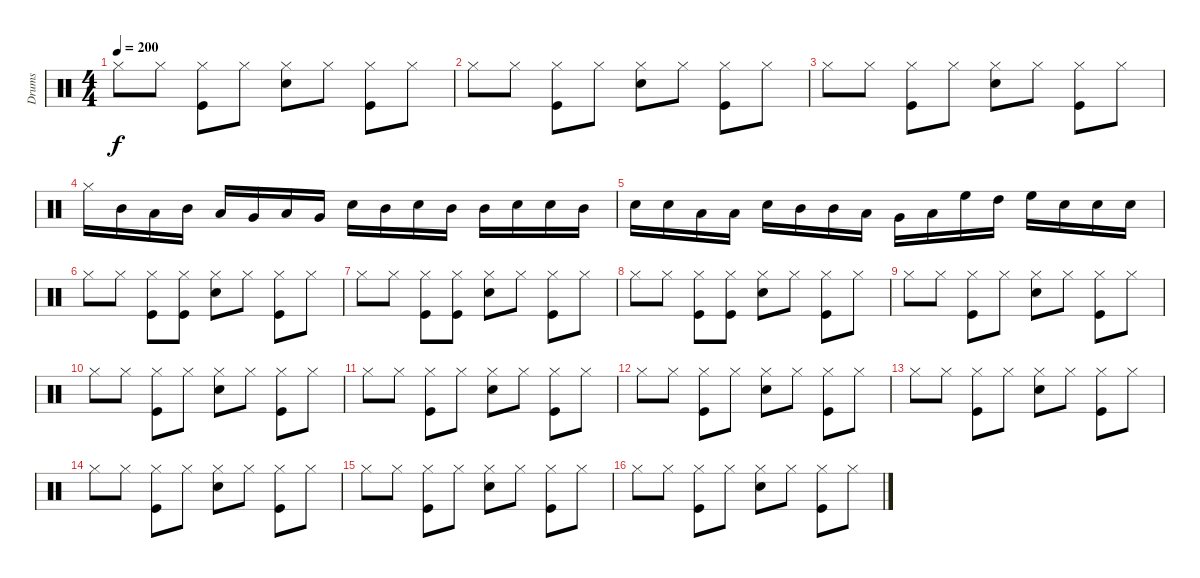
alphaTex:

\track ("Drums" "Drums") {instrument percussion}
\staff {score}
\articulation defaults
\ts (4 4)
\tempo 200
\clef neutral
\ks c "Hi-Hat (closed)".8{dy f} "Hi-Hat (closed)".8
("Kick (hit)" "Hi-Hat (closed)").8 "Hi-Hat (closed)".8 ("Electric Snare (hit)" "Hi-Hat (closed)").8 "Hi-Hat (closed)".8 ("Hi-Hat (closed)" "Kick (hit)").8 "Hi-Hat (closed)".8 |
"Hi-Hat (closed)".8 "Hi-Hat (closed)".8 ("Kick (hit)" "Hi-Hat (closed)").8 "Hi-Hat (closed)".8 ("Electric Snare (hit)" "Hi-Hat (closed)").8 "Hi-Hat (closed)".8 ("Hi-Hat (closed)" "Kick (hit)").8 "Hi-Hat (closed)".8 |
"Hi-Hat (closed)".8 "Hi-Hat (closed)".8 ("Kick (hit)" "Hi-Hat (closed)").8 "Hi-Hat (closed)".8 ("Electric Snare (hit)" "Hi-Hat (closed)").8 "Hi-Hat (closed)".8 ("Hi-Hat (closed)" "Kick (hit)").8 "Hi-Hat (closed)".8 |
"Hi-Hat (closed)".16 "Mid Tom (hit)".16 "Low Tom (hit)".16 "Mid Tom (hit)".16 "Low Floor Tom (hit)".16 "Very Low Tom (hit)".16 "Low Floor Tom (hit)".16 "Very Low Tom (hit)".16 "Electric Snare (hit)".16 "Mid Tom (hit)".16 "Electric Snare (hit)".16 "Mid Tom (hit)".16 "Mid Tom (hit)".16 "Electric Snare (hit)".16 "Electric Snare (hit)".16 "Mid Tom (hit)".16 |
"Electric Snare (hit)".16 "Electric Snare (hit)".16 "Low Tom (hit)".16 "Low Tom (hit)".16 "Electric Snare (hit)".16 "Mid Tom (hit)".16 "Mid Tom (hit)".16 "Low Tom (hit)".16 "Very Low Tom (hit)".16 "Low Floor Tom (hit)".16 "High Floor Tom (hit)".16 "High Tom (hit)".16 "High Floor Tom (hit)".16 "Electric Snare (hit)".16 "Electric Snare (hit)".16 "Electric Snare (hit)".16 |
"Hi-Hat (closed)".8 "Hi-Hat (closed)".8 ("Hi-Hat (closed)" "Kick (hit)").8 ("Kick (hit)" "Hi-Hat (closed)").8 ("Electric Snare (hit)" "Hi-Hat (closed)").8 "Hi-Hat (closed)".8 ("Hi-Hat (closed)" "Kick (hit)").8 "Hi-Hat (closed)".8 |
"Hi-Hat (closed)".8 "Hi-Hat (closed)".8 ("Hi-Hat (closed)" "Kick (hit)").8 ("Kick (hit)" "Hi-Hat (closed)").8 ("Electric Snare (hit)" "Hi-Hat (closed)").8 "Hi-Hat (closed)".8 ("Hi-Hat (closed)" "Kick (hit)").8 "Hi-Hat (closed)".8 |
"Hi-Hat (closed)".8 "Hi-Hat (closed)".8 ("Hi-Hat (closed)" "Kick (hit)").8 ("Kick (hit)" "Hi-Hat (closed)").8 ("Electric Snare (hit)" "Hi-Hat (closed)").8 "Hi-Hat (closed)".8 ("Hi-Hat (closed)" "Kick (hit)").8 "Hi-Hat (closed)".8 |
"Hi-Hat (closed)".8 "Hi-Hat (closed)".8 ("Kick (hit)" "Hi-Hat (closed)").8 "Hi-Hat (closed)".8 ("Electric Snare (hit)" "Hi-Hat (closed)").8 "Hi-Hat (closed)".8 ("Hi-Hat (closed)" "Kick (hit)").8 "Hi-Hat (closed)".8 |
"Hi-Hat (closed)".8 "Hi-Hat (closed)".8 ("Kick (hit)" "Hi-Hat (closed)").8 "Hi-Hat (closed)".8 ("Electric Snare (hit)" "Hi-Hat (closed)").8 "Hi-Hat (closed)".8 ("Hi-Hat (closed)" "Kick (hit)").8 "Hi-Hat (closed)".8 |
"Hi-Hat (closed)".8 "Hi-Hat (closed)".8 ("Kick (hit)" "Hi-Hat (closed)").8 "Hi-Hat (closed)".8 ("Electric Snare (hit)" "Hi-Hat (closed)").8 "Hi-Hat (closed)".8 ("Hi-Hat (closed)" "Kick (hit)").8 "Hi-Hat (closed)".8 |
"Hi-Hat (closed)".8 "Hi-Hat (closed)".8 ("Kick (hit)" "Hi-Hat (closed)").8 "Hi-Hat (closed)".8 ("Electric Snare (hit)" "Hi-Hat (closed)").8 "Hi-Hat (closed)".8 ("Hi-Hat (closed)" "Kick (hit)").8 "Hi-Hat (closed)".8 |
"Hi-Hat (closed)".8 "Hi-Hat (closed)".8 ("Kick (hit)" "Hi-Hat (closed)").8 "Hi-Hat (closed)".8 ("Electric Snare (hit)" "Hi-Hat (closed)").8 "Hi-Hat (closed)".8 ("Hi-Hat (closed)" "Kick (hit)").8 "Hi-Hat (closed)".8 |
"Hi-Hat (closed)".8 "Hi-Hat (closed)".8 ("Kick (hit)" "Hi-Hat (closed)").8 "Hi-Hat (closed)".8 ("Electric Snare (hit)" "Hi-Hat (closed)").8 "Hi-Hat (closed)".8 ("Hi-Hat (closed)" "Kick (hit)").8 "Hi-Hat (closed)".8 |
"Hi-Hat (closed)".8 "Hi-Hat (closed)".8 ("Kick (hit)" "Hi-Hat (closed)").8 "Hi-Hat (closed)".8 ("Electric Snare (hit)" "Hi-Hat (closed)").8 "Hi-Hat (closed)".8 ("Hi-Hat (closed)" "Kick (hit)").8 "Hi-Hat (closed)".8 |
"Hi-Hat (closed)".8 "Hi-Hat (closed)".8 ("Kick (hit)" "Hi-Hat (closed)").8 "Hi-Hat (closed)".8 ("Electric Snare (hit)" "Hi-Hat (closed)").8 "Hi-Hat (closed)".8 ("Hi-Hat (closed)" "Kick (hit)").8 "Hi-Hat (closed)".8
